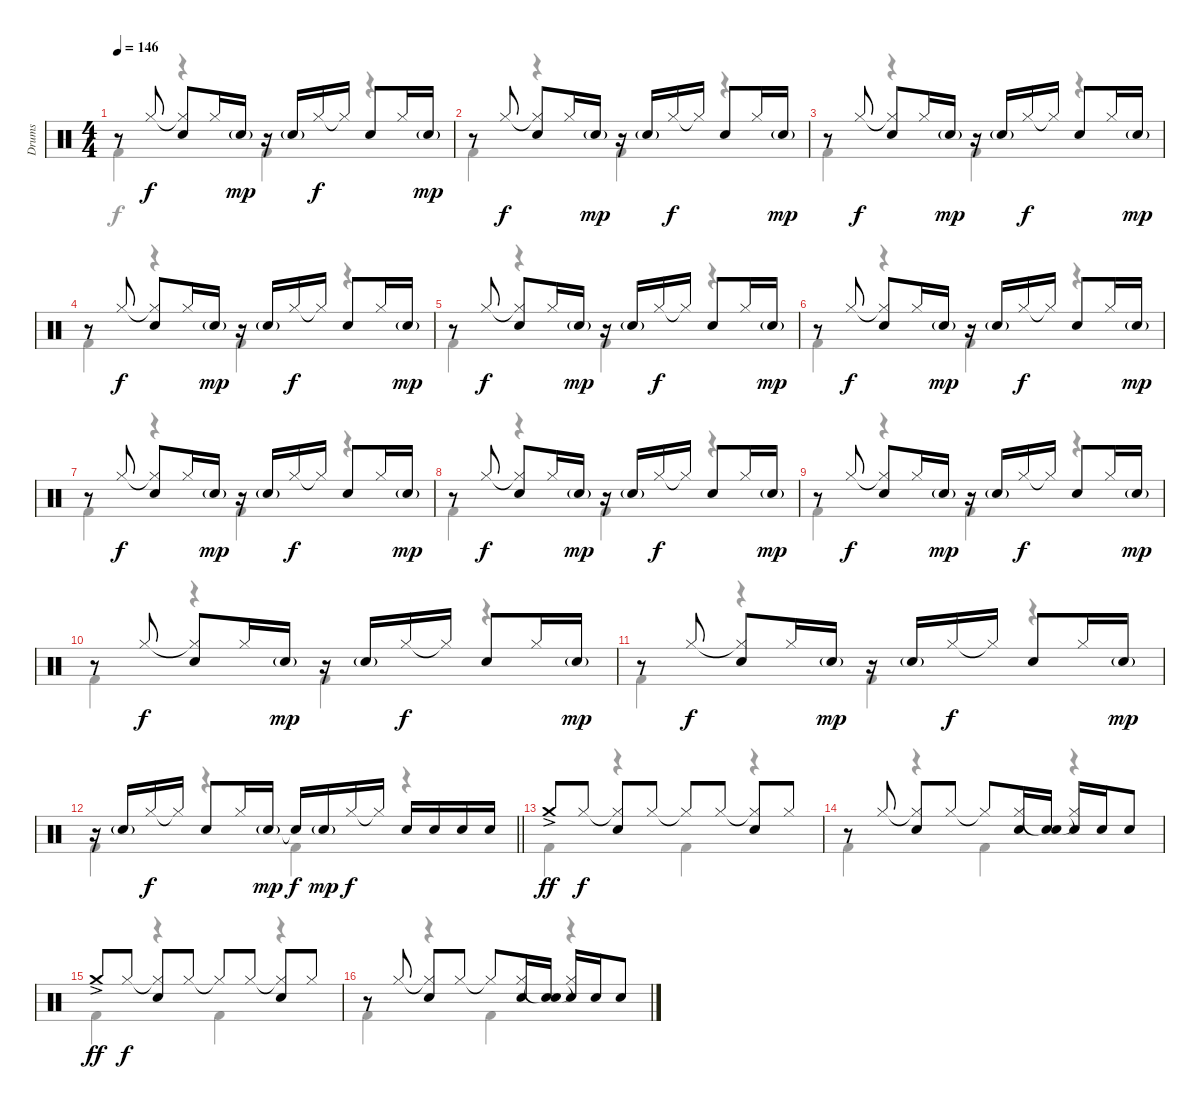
\track ("Drums" "Drums") {instrument percussion}
\staff {score}
\articulation defaults
\voice
\ts (4 4)
\tempo 146
\clef neutral
\ks c
r.8{dy mp} "Hi-Hat (closed)".8{dy f} ("Hi-Hat (closed)"{t} "Snare (hit) 2").8 "Hi-Hat (closed)".16 "Snare (hit) 2"{g}.16{dy mp} r.16 "Snare (hit) 2"{g}.16 "Hi-Hat (closed)".16{dy f} "Hi-Hat (closed)"{t}.16 "Snare (hit) 2".8 "Hi-Hat (closed)".16 "Snare (hit) 2"{g}.16{dy mp} |
r.8 "Hi-Hat (closed)".8{dy f} ("Hi-Hat (closed)"{t} "Snare (hit) 2").8 "Hi-Hat (closed)".16 "Snare (hit) 2"{g}.16{dy mp} r.16 "Snare (hit) 2"{g}.16 "Hi-Hat (closed)".16{dy f} "Hi-Hat (closed)"{t}.16 "Snare (hit) 2".8 "Hi-Hat (closed)".16 "Snare (hit) 2"{g}.16{dy mp} |
r.8 "Hi-Hat (closed)".8{dy f} ("Hi-Hat (closed)"{t} "Snare (hit) 2").8 "Hi-Hat (closed)".16 "Snare (hit) 2"{g}.16{dy mp} r.16 "Snare (hit) 2"{g}.16 "Hi-Hat (closed)".16{dy f} "Hi-Hat (closed)"{t}.16 "Snare (hit) 2".8 "Hi-Hat (closed)".16 "Snare (hit) 2"{g}.16{dy mp} |
r.8 "Hi-Hat (closed)".8{dy f} ("Hi-Hat (closed)"{t} "Snare (hit) 2").8 "Hi-Hat (closed)".16 "Snare (hit) 2"{g}.16{dy mp} r.16 "Snare (hit) 2"{g}.16 "Hi-Hat (closed)".16{dy f} "Hi-Hat (closed)"{t}.16 "Snare (hit) 2".8 "Hi-Hat (closed)".16 "Snare (hit) 2"{g}.16{dy mp} |
r.8 "Hi-Hat (closed)".8{dy f} ("Hi-Hat (closed)"{t} "Snare (hit) 2").8 "Hi-Hat (closed)".16 "Snare (hit) 2"{g}.16{dy mp} r.16 "Snare (hit) 2"{g}.16 "Hi-Hat (closed)".16{dy f} "Hi-Hat (closed)"{t}.16 "Snare (hit) 2".8 "Hi-Hat (closed)".16 "Snare (hit) 2"{g}.16{dy mp} |
r.8 "Hi-Hat (closed)".8{dy f} ("Hi-Hat (closed)"{t} "Snare (hit) 2").8 "Hi-Hat (closed)".16 "Snare (hit) 2"{g}.16{dy mp} r.16 "Snare (hit) 2"{g}.16 "Hi-Hat (closed)".16{dy f} "Hi-Hat (closed)"{t}.16 "Snare (hit) 2".8 "Hi-Hat (closed)".16 "Snare (hit) 2"{g}.16{dy mp} |
r.8 "Hi-Hat (closed)".8{dy f} ("Hi-Hat (closed)"{t} "Snare (hit) 2").8 "Hi-Hat (closed)".16 "Snare (hit) 2"{g}.16{dy mp} r.16 "Snare (hit) 2"{g}.16 "Hi-Hat (closed)".16{dy f} "Hi-Hat (closed)"{t}.16 "Snare (hit) 2".8 "Hi-Hat (closed)".16 "Snare (hit) 2"{g}.16{dy mp} |
r.8 "Hi-Hat (closed)".8{dy f} ("Hi-Hat (closed)"{t} "Snare (hit) 2").8 "Hi-Hat (closed)".16 "Snare (hit) 2"{g}.16{dy mp} r.16 "Snare (hit) 2"{g}.16 "Hi-Hat (closed)".16{dy f} "Hi-Hat (closed)"{t}.16 "Snare (hit) 2".8 "Hi-Hat (closed)".16 "Snare (hit) 2"{g}.16{dy mp} |
r.8 "Hi-Hat (closed)".8{dy f} ("Hi-Hat (closed)"{t} "Snare (hit) 2").8 "Hi-Hat (closed)".16 "Snare (hit) 2"{g}.16{dy mp} r.16 "Snare (hit) 2"{g}.16 "Hi-Hat (closed)".16{dy f} "Hi-Hat (closed)"{t}.16 "Snare (hit) 2".8 "Hi-Hat (closed)".16 "Snare (hit) 2"{g}.16{dy mp} |
r.8 "Hi-Hat (closed)".8{dy f} ("Hi-Hat (closed)"{t} "Snare (hit) 2").8 "Hi-Hat (closed)".16 "Snare (hit) 2"{g}.16{dy mp} r.16 "Snare (hit) 2"{g}.16 "Hi-Hat (closed)".16{dy f} "Hi-Hat (closed)"{t}.16 "Snare (hit) 2".8 "Hi-Hat (closed)".16 "Snare (hit) 2"{g}.16{dy mp} |
r.8 "Hi-Hat (closed)".8{dy f} ("Hi-Hat (closed)"{t} "Snare (hit) 2").8 "Hi-Hat (closed)".16 "Snare (hit) 2"{g}.16{dy mp} r.16 "Snare (hit) 2"{g}.16 "Hi-Hat (closed)".16{dy f} "Hi-Hat (closed)"{t}.16 "Snare (hit) 2".8 "Hi-Hat (closed)".16 "Snare (hit) 2"{g}.16{dy mp} |
\barLineRight lightlight
r.16 "Snare (hit) 2"{g}.16 "Hi-Hat (closed)".16{dy f} "Hi-Hat (closed)"{t}.16 "Snare (hit) 2".8 "Hi-Hat (closed)".16 "Snare (hit) 2"{g}.16{dy mp} "Snare (hit)"{t}.16{dy f} "Snare (hit) 2"{g}.16{dy mp} "Hi-Hat (closed)".16{dy f} "Hi-Hat (closed)"{t}.16 "Snare (hit) 2".16 "Snare (hit) 2".16 "Snare (hit) 2".16 "Snare (hit) 2".16 |
"Crash medium (hit)"{ac}.8{dy ff} "Hi-Hat (closed)".8{dy f} ("Hi-Hat (closed)"{t} "Snare (hit) 2").8 "Hi-Hat (closed)".8 "Hi-Hat (closed)"{t}.8 "Hi-Hat (closed)".8 ("Hi-Hat (closed)"{t} "Snare (hit) 2").8 "Hi-Hat (closed)".8 |
r.8 "Hi-Hat (closed)".8 ("Hi-Hat (closed)"{t} "Snare (hit) 2").8 "Hi-Hat (closed)".8 "Hi-Hat (closed)"{t}.8 ("Hi-Hat (closed)" "Snare (hit) 2").16 ("Snare (hit)"{t} "Snare (hit) 2").16 ("Hi-Hat (closed)"{t} "Snare (hit) 2").16 "Snare (hit) 2".16 "Snare (hit) 2".8 |
"Crash medium (hit)"{ac}.8{dy ff} "Hi-Hat (closed)".8{dy f} ("Hi-Hat (closed)"{t} "Snare (hit) 2").8 "Hi-Hat (closed)".8 "Hi-Hat (closed)"{t}.8 "Hi-Hat (closed)".8 ("Hi-Hat (closed)"{t} "Snare (hit) 2").8 "Hi-Hat (closed)".8 |
r.8 "Hi-Hat (closed)".8 ("Hi-Hat (closed)"{t} "Snare (hit) 2").8 "Hi-Hat (closed)".8 "Hi-Hat (closed)"{t}.8 ("Hi-Hat (closed)" "Snare (hit) 2").16 ("Snare (hit)"{t} "Snare (hit) 2").16 ("Hi-Hat (closed)"{t} "Snare (hit) 2").16 "Snare (hit) 2".16 "Snare (hit) 2".8
\voice
\clef neutral
\ottava regular
\simile none
\ks c "Kick (hit) 2".4{dy f}
r.4 "Kick (hit) 2".4 r.4 |
"Kick (hit) 2".4 r.4 "Kick (hit) 2".4 r.4 |
"Kick (hit) 2".4 r.4 "Kick (hit) 2".4 r.4 |
"Kick (hit) 2".4 r.4 "Kick (hit) 2".4 r.4 |
"Kick (hit) 2".4 r.4 "Kick (hit) 2".4 r.4 |
"Kick (hit) 2".4 r.4 "Kick (hit) 2".4 r.4 |
"Kick (hit) 2".4 r.4 "Kick (hit) 2".4 r.4 |
"Kick (hit) 2".4 r.4 "Kick (hit) 2".4 r.4 |
"Kick (hit) 2".4 r.4 "Kick (hit) 2".4 r.4 |
"Kick (hit) 2".4 r.4 "Kick (hit) 2".4 r.4 |
"Kick (hit) 2".4 r.4 "Kick (hit) 2".4 r.4 |
\barLineRight lightlight "Kick (hit) 2".4
r.4 "Kick (hit) 2".4 r.4 |
"Kick (hit) 2".4 r.4 "Kick (hit) 2".4 r.4 |
"Kick (hit) 2".4 r.4 "Kick (hit) 2".4 r.4 |
"Kick (hit) 2".4 r.4 "Kick (hit) 2".4 r.4 |
"Kick (hit) 2".4 r.4 "Kick (hit) 2".4 r.4
